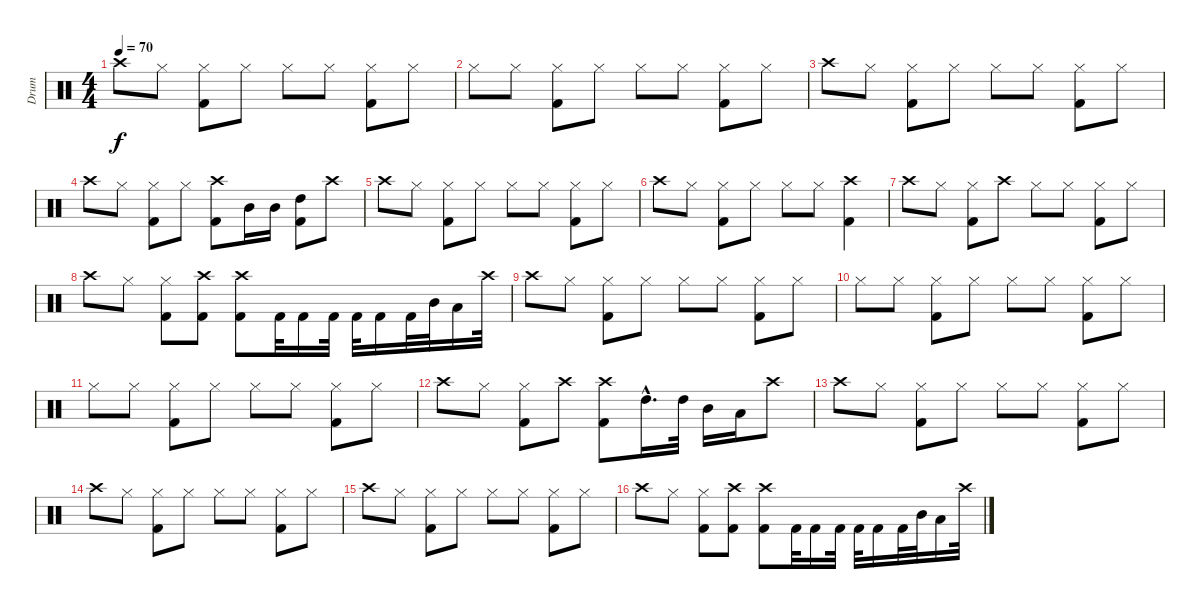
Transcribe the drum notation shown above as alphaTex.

\track ("Drum" "Drum") {instrument percussion}
\staff {score}
\articulation defaults
\ts (4 4)
\tempo 70
\clef neutral
\ks c "Crash high (hit)".8{dy f} "Hi-Hat (closed)".8
("Hi-Hat (closed)" "Kick (hit) 2").8 "Hi-Hat (closed)".8 "Hi-Hat (closed)".8 "Hi-Hat (closed)".8 ("Hi-Hat (closed)" "Kick (hit) 2").8 "Hi-Hat (closed)".8 |
"Hi-Hat (closed)".8 "Hi-Hat (closed)".8 ("Hi-Hat (closed)" "Kick (hit) 2").8 "Hi-Hat (closed)".8 "Hi-Hat (closed)".8 "Hi-Hat (closed)".8 ("Hi-Hat (closed)" "Kick (hit) 2").8 "Hi-Hat (closed)".8 |
"Crash high (hit)".8 "Hi-Hat (closed)".8 ("Hi-Hat (closed)" "Kick (hit) 2").8 "Hi-Hat (closed)".8 "Hi-Hat (closed)".8 "Hi-Hat (closed)".8 ("Hi-Hat (closed)" "Kick (hit) 2").8 "Hi-Hat (closed)".8 |
"Crash high (hit)".8 "Hi-Hat (closed)".8 ("Hi-Hat (closed)" "Kick (hit) 2").8 "Hi-Hat (closed)".8 ("Crash high (hit)" "Kick (hit) 2").8 "Mid Tom (hit)".16 "Mid Tom (hit)".16 ("High Tom (hit)" "Kick (hit) 2").8 "Crash high (hit)".8 |
"Crash high (hit)".8 "Hi-Hat (closed)".8 ("Hi-Hat (closed)" "Kick (hit) 2").8 "Hi-Hat (closed)".8 "Hi-Hat (closed)".8 "Hi-Hat (closed)".8 ("Hi-Hat (closed)" "Kick (hit) 2").8 "Hi-Hat (closed)".8 |
"Crash high (hit)".8 "Hi-Hat (closed)".8 ("Hi-Hat (closed)" "Kick (hit) 2").8 "Hi-Hat (closed)".8 "Hi-Hat (closed)".8 "Hi-Hat (closed)".8 ("Crash high (hit)" "Kick (hit) 2").4 |
"Crash high (hit)".8 "Hi-Hat (closed)".8 ("Hi-Hat (closed)" "Kick (hit) 2").8 "Crash high (hit)".8 "Hi-Hat (closed)".8 "Hi-Hat (closed)".8 ("Hi-Hat (closed)" "Kick (hit) 2").8 "Hi-Hat (closed)".8 |
"Crash high (hit)".8 "Hi-Hat (closed)".8 ("Hi-Hat (closed)" "Kick (hit) 2").8 ("Crash high (hit)" "Kick (hit) 2").8 ("Crash high (hit)" "Kick (hit) 2").8 "Kick (hit) 2".32 "Kick (hit) 2".16 "Kick (hit) 2".32 "Kick (hit) 2".32 "Kick (hit) 2".16 "Kick (hit) 2".32 "Mid Tom (hit)".32 "Low Tom (hit)".16 "Crash high (hit)".32 |
"Crash high (hit)".8 "Hi-Hat (closed)".8 ("Hi-Hat (closed)" "Kick (hit) 2").8 "Hi-Hat (closed)".8 "Hi-Hat (closed)".8 "Hi-Hat (closed)".8 ("Hi-Hat (closed)" "Kick (hit) 2").8 "Hi-Hat (closed)".8 |
"Hi-Hat (closed)".8 "Hi-Hat (closed)".8 ("Hi-Hat (closed)" "Kick (hit) 2").8 "Hi-Hat (closed)".8 "Hi-Hat (closed)".8 "Hi-Hat (closed)".8 ("Hi-Hat (closed)" "Kick (hit) 2").8 "Hi-Hat (closed)".8 |
"Hi-Hat (closed)".8 "Hi-Hat (closed)".8 ("Hi-Hat (closed)" "Kick (hit) 2").8 "Hi-Hat (closed)".8 "Hi-Hat (closed)".8 "Hi-Hat (closed)".8 ("Hi-Hat (closed)" "Kick (hit) 2").8 "Hi-Hat (closed)".8 |
"Crash high (hit)".8 "Hi-Hat (closed)".8 ("Hi-Hat (closed)" "Kick (hit) 2").8 "Crash high (hit)".8 ("Crash high (hit)" "Kick (hit) 2").8 "High Tom (hit)"{hac}.16{d} "High Tom (hit)".32 "Mid Tom (hit)".16 "Low Tom (hit)".16 "Crash high (hit)".8 |
"Crash high (hit)".8 "Hi-Hat (closed)".8 ("Hi-Hat (closed)" "Kick (hit) 2").8 "Hi-Hat (closed)".8 "Hi-Hat (closed)".8 "Hi-Hat (closed)".8 ("Hi-Hat (closed)" "Kick (hit) 2").8 "Hi-Hat (closed)".8 |
"Crash high (hit)".8 "Hi-Hat (closed)".8 ("Hi-Hat (closed)" "Kick (hit) 2").8 "Hi-Hat (closed)".8 "Hi-Hat (closed)".8 "Hi-Hat (closed)".8 ("Hi-Hat (closed)" "Kick (hit) 2").8 "Hi-Hat (closed)".8 |
"Crash high (hit)".8 "Hi-Hat (closed)".8 ("Hi-Hat (closed)" "Kick (hit) 2").8 "Hi-Hat (closed)".8 "Hi-Hat (closed)".8 "Hi-Hat (closed)".8 ("Hi-Hat (closed)" "Kick (hit) 2").8 "Hi-Hat (closed)".8 |
"Crash high (hit)".8 "Hi-Hat (closed)".8 ("Hi-Hat (closed)" "Kick (hit) 2").8 ("Crash high (hit)" "Kick (hit) 2").8 ("Crash high (hit)" "Kick (hit) 2").8 "Kick (hit) 2".32 "Kick (hit) 2".16 "Kick (hit) 2".32 "Kick (hit) 2".32 "Kick (hit) 2".16 "Kick (hit) 2".32 "Mid Tom (hit)".32 "Low Tom (hit)".16 "Crash high (hit)".32
